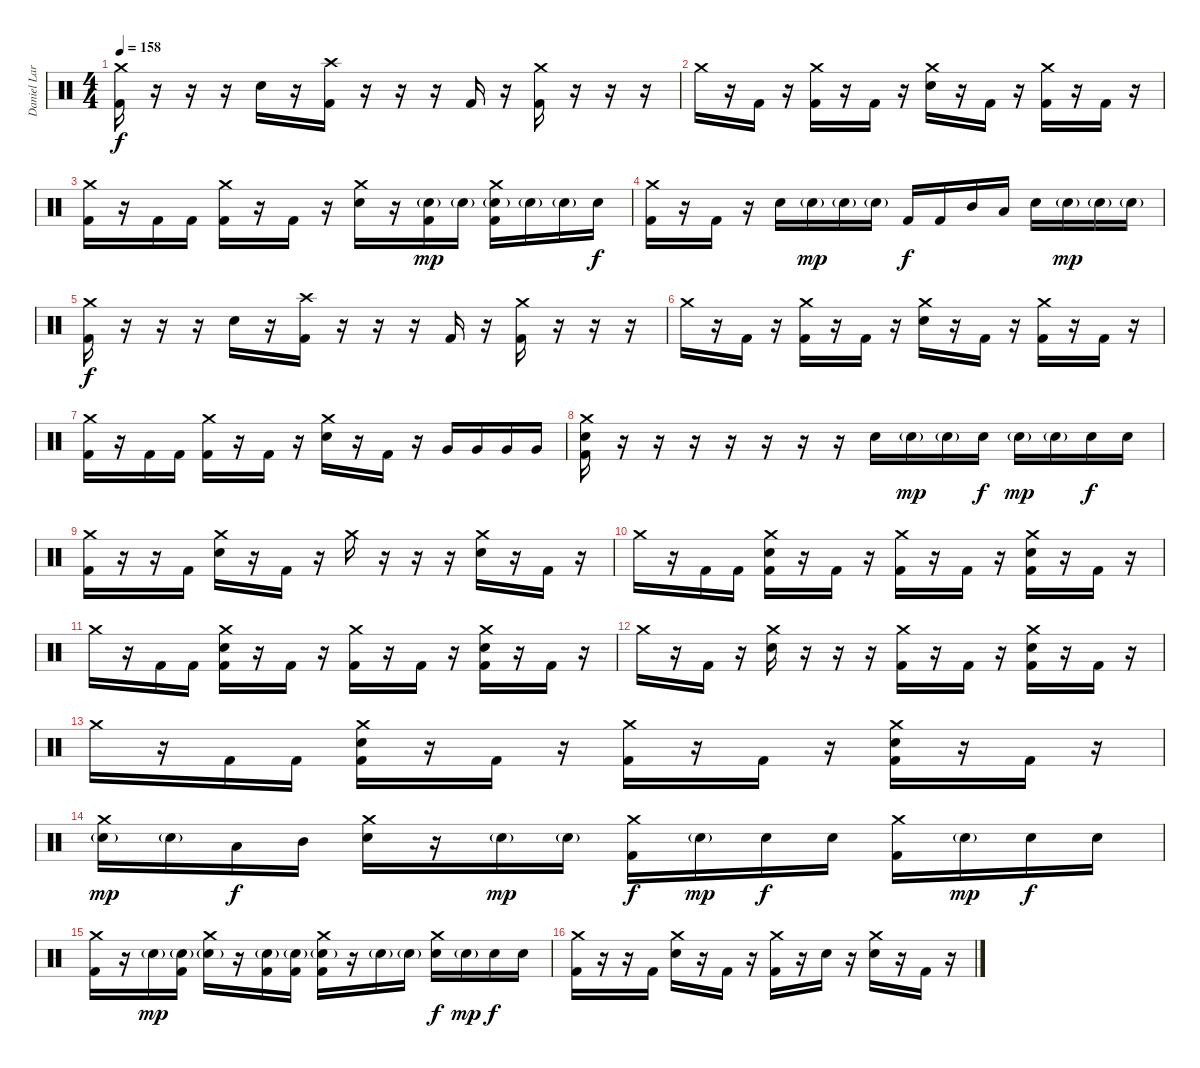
\track ("Daniel Larsen" "Daniel Lar") {instrument percussion}
\staff {score}
\articulation defaults
\ts (4 4)
\tempo 158
\clef neutral
\ks c
("Crash medium (hit)" "Kick (hit) 2").16{dy f} r.16 r.16 r.16 "Electric Snare (hit)".16 r.16 ("Crash high (hit)" "Kick (hit) 2").16 r.16 r.16 r.16 "Kick (hit) 2".16 r.16 ("Crash medium (hit)" "Kick (hit) 2").16 r.16 r.16 r.16 |
"Crash medium (hit)".16 r.16 "Kick (hit) 2".16 r.16 ("Crash medium (hit)" "Kick (hit) 2").16 r.16 "Kick (hit) 2".16 r.16 ("Crash medium (hit)" "Electric Snare (hit)").16 r.16 "Kick (hit) 2".16 r.16 ("Crash medium (hit)" "Kick (hit) 2").16 r.16 "Kick (hit) 2".16 r.16 |
("Crash medium (hit)" "Kick (hit) 2").16 r.16 "Kick (hit) 2".16 "Kick (hit) 2".16 ("Crash medium (hit)" "Kick (hit) 2").16 r.16 "Kick (hit) 2".16 r.16 ("Crash medium (hit)" "Electric Snare (hit)").16 r.16 ("Electric Snare (hit)"{g} "Kick (hit) 2").16{dy mp} "Electric Snare (hit)"{g}.16 ("Crash medium (hit)" "Electric Snare (hit)"{g} "Kick (hit) 2").16 "Electric Snare (hit)"{g}.16 "Electric Snare (hit)"{g}.16 "Electric Snare (hit)".16{dy f} |
("Crash medium (hit)" "Kick (hit) 2").16 r.16 "Kick (hit) 2".16 r.16 "Electric Snare (hit)".16 "Electric Snare (hit)"{g}.16{dy mp} "Electric Snare (hit)"{g}.16 "Electric Snare (hit)"{g}.16 "Kick (hit) 2".16{dy f} "Kick (hit) 2".16 "Mid Tom (hit)".16 "Low Tom (hit)".16 "Electric Snare (hit)".16 "Electric Snare (hit)"{g}.16{dy mp} "Electric Snare (hit)"{g}.16 "Electric Snare (hit)"{g}.16 |
("Crash medium (hit)" "Kick (hit) 2").16{dy f} r.16 r.16 r.16 "Electric Snare (hit)".16 r.16 ("Crash high (hit)" "Kick (hit) 2").16 r.16 r.16 r.16 "Kick (hit) 2".16 r.16 ("Crash medium (hit)" "Kick (hit) 2").16 r.16 r.16 r.16 |
"Crash medium (hit)".16 r.16 "Kick (hit) 2".16 r.16 ("Crash medium (hit)" "Kick (hit) 2").16 r.16 "Kick (hit) 2".16 r.16 ("Crash medium (hit)" "Electric Snare (hit)").16 r.16 "Kick (hit) 2".16 r.16 ("Crash medium (hit)" "Kick (hit) 2").16 r.16 "Kick (hit) 2".16 r.16 |
("Crash medium (hit)" "Kick (hit) 2").16 r.16 "Kick (hit) 2".16 "Kick (hit) 2".16 ("Crash medium (hit)" "Kick (hit) 2").16 r.16 "Kick (hit) 2".16 r.16 ("Crash medium (hit)" "Electric Snare (hit)").16 r.16 "Kick (hit) 2".16 r.16 "Very Low Tom (hit)".16 "Very Low Tom (hit)".16 "Very Low Tom (hit)".16 "Very Low Tom (hit)".16 |
("Crash medium (hit)" "Electric Snare (hit)" "Kick (hit) 2").16 r.16 r.16 r.16 r.16 r.16 r.16 r.16 "Electric Snare (hit)".16 "Electric Snare (hit)"{g}.16{dy mp} "Electric Snare (hit)"{g}.16 "Electric Snare (hit)".16{dy f} "Electric Snare (hit)"{g}.16{dy mp} "Electric Snare (hit)"{g}.16 "Electric Snare (hit)".16{dy f} "Electric Snare (hit)".16 |
("Crash medium (hit)" "Kick (hit) 2").16 r.16 r.16 "Kick (hit) 2".16 ("Crash medium (hit)" "Electric Snare (hit)").16 r.16 "Kick (hit) 2".16 r.16 "Crash medium (hit)".16 r.16 r.16 r.16 ("Crash medium (hit)" "Electric Snare (hit)").16 r.16 "Kick (hit) 2".16 r.16 |
"Crash medium (hit)".16 r.16 "Kick (hit) 2".16 "Kick (hit) 2".16 ("Crash medium (hit)" "Electric Snare (hit)" "Kick (hit) 2").16 r.16 "Kick (hit) 2".16 r.16 ("Crash medium (hit)" "Kick (hit) 2").16 r.16 "Kick (hit) 2".16 r.16 ("Crash medium (hit)" "Electric Snare (hit)" "Kick (hit) 2").16 r.16 "Kick (hit) 2".16 r.16 |
"Crash medium (hit)".16 r.16 "Kick (hit) 2".16 "Kick (hit) 2".16 ("Crash medium (hit)" "Electric Snare (hit)" "Kick (hit) 2").16 r.16 "Kick (hit) 2".16 r.16 ("Crash medium (hit)" "Kick (hit) 2").16 r.16 "Kick (hit) 2".16 r.16 ("Crash medium (hit)" "Electric Snare (hit)" "Kick (hit) 2").16 r.16 "Kick (hit) 2".16 r.16 |
"Crash medium (hit)".16 r.16 "Kick (hit) 2".16 r.16 ("Crash medium (hit)" "Electric Snare (hit)").16 r.16 r.16 r.16 ("Crash medium (hit)" "Kick (hit) 2").16 r.16 "Kick (hit) 2".16 r.16 ("Crash medium (hit)" "Electric Snare (hit)" "Kick (hit) 2").16 r.16 "Kick (hit) 2".16 r.16 |
"Crash medium (hit)".16 r.16 "Kick (hit) 2".16 "Kick (hit) 2".16 ("Crash medium (hit)" "Electric Snare (hit)" "Kick (hit) 2").16 r.16 "Kick (hit) 2".16 r.16 ("Crash medium (hit)" "Kick (hit) 2").16 r.16 "Kick (hit) 2".16 r.16 ("Crash medium (hit)" "Electric Snare (hit)" "Kick (hit) 2").16 r.16 "Kick (hit) 2".16 r.16 |
("Crash medium (hit)" "Electric Snare (hit)"{g}).16{dy mp} "Electric Snare (hit)"{g}.16 "Low Tom (hit)".16{dy f} "Mid Tom (hit)".16 ("Crash medium (hit)" "Electric Snare (hit)").16 r.16 "Electric Snare (hit)"{g}.16{dy mp} "Electric Snare (hit)"{g}.16 ("Crash medium (hit)" "Kick (hit) 2").16{dy f} "Electric Snare (hit)"{g}.16{dy mp} "Electric Snare (hit)".16{dy f} "Electric Snare (hit)".16 ("Crash medium (hit)" "Kick (hit) 2").16 "Electric Snare (hit)"{g}.16{dy mp} "Electric Snare (hit)".16{dy f} "Electric Snare (hit)".16 |
("Crash medium (hit)" "Kick (hit) 2").16 r.16 "Electric Snare (hit)"{g}.16{dy mp} ("Electric Snare (hit)"{g} "Kick (hit) 2").16 ("Crash medium (hit)" "Electric Snare (hit)"{g}).16 r.16 ("Electric Snare (hit)"{g} "Kick (hit) 2").16 ("Electric Snare (hit)"{g} "Kick (hit) 2").16 ("Crash medium (hit)" "Electric Snare (hit)"{g} "Kick (hit) 2").16 r.16 "Electric Snare (hit)"{g}.16 "Electric Snare (hit)"{g}.16 ("Crash medium (hit)" "Electric Snare (hit)").16{dy f} "Electric Snare (hit)"{g}.16{dy mp} "Electric Snare (hit)".16{dy f} "Electric Snare (hit)".16 |
("Crash medium (hit)" "Kick (hit) 2").16 r.16 r.16 "Kick (hit) 2".16 ("Crash medium (hit)" "Electric Snare (hit)").16 r.16 "Kick (hit) 2".16 r.16 ("Crash medium (hit)" "Kick (hit) 2").16 r.16 "Electric Snare (hit)".16 r.16 ("Crash medium (hit)" "Electric Snare (hit)").16 r.16 "Kick (hit) 2".16 r.16
